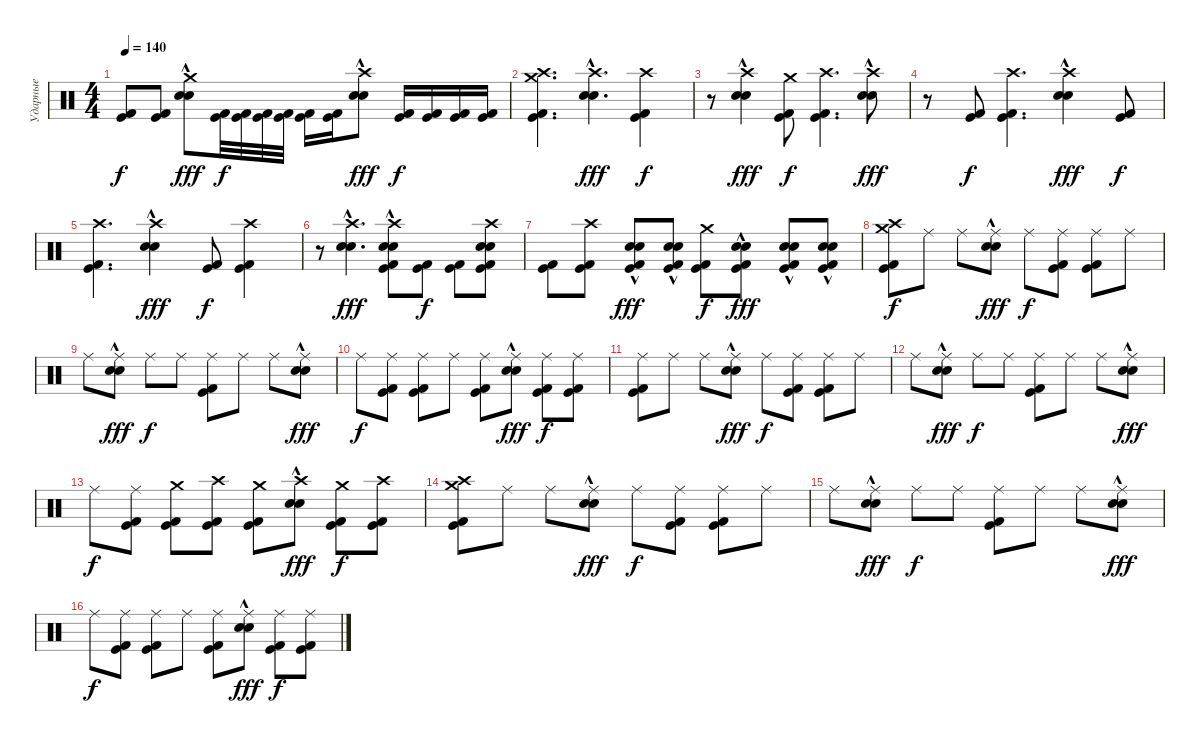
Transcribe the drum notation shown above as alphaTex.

\track ("Ударные" "Ударные") {instrument percussion}
\staff {score}
\articulation defaults
\ts (4 4)
\tempo 140
\clef neutral
\ks c
("Kick (hit)" "Kick (hit) 2").8{dy f} ("Kick (hit)" "Kick (hit) 2").8 ("Crash medium (hit)" "Snare (hit) 2"{hac} "Electric Snare (hit)"{hac}).8{dy fff} ("Kick (hit)" "Kick (hit) 2").32{dy f} ("Kick (hit)" "Kick (hit) 2").32 ("Kick (hit)" "Kick (hit) 2").32 ("Kick (hit)" "Kick (hit) 2").32 ("Kick (hit)" "Kick (hit) 2").16 ("Kick (hit)" "Kick (hit) 2").16 ("Crash high (hit)" "Snare (hit) 2"{hac} "Electric Snare (hit)"{hac}).8{dy fff} ("Kick (hit)" "Kick (hit) 2").16{dy f} ("Kick (hit)" "Kick (hit) 2").16 ("Kick (hit)" "Kick (hit) 2").16 ("Kick (hit)" "Kick (hit) 2").16 |
("Crash high (hit)" "Kick (hit)" "Kick (hit) 2" "Crash medium (hit)").4{d} ("Crash high (hit)" "Snare (hit) 2"{hac} "Electric Snare (hit)"{hac}).4{d dy fff} ("Crash high (hit)" "Kick (hit)" "Kick (hit) 2").4{dy f} |
r.8 ("Crash high (hit)" "Snare (hit) 2"{hac} "Electric Snare (hit)"{hac}).4{dy fff} ("Crash medium (hit)" "Kick (hit)" "Kick (hit) 2").8{dy f} ("Crash high (hit)" "Kick (hit)" "Kick (hit) 2").4{d} ("Crash high (hit)" "Snare (hit) 2"{hac} "Electric Snare (hit)"{hac}).8{dy fff} |
r.8 ("Kick (hit)" "Kick (hit) 2").8{dy f} ("Crash high (hit)" "Kick (hit)" "Kick (hit) 2").4{d} ("Crash high (hit)" "Snare (hit) 2"{hac} "Electric Snare (hit)"{hac}).4{dy fff} ("Kick (hit)" "Kick (hit) 2").8{dy f} |
("Crash high (hit)" "Kick (hit)" "Kick (hit) 2").4{d} ("Crash high (hit)" "Snare (hit) 2"{hac} "Electric Snare (hit)"{hac}).4{dy fff} ("Kick (hit)" "Kick (hit) 2").8{dy f} ("Crash high (hit)" "Kick (hit)" "Kick (hit) 2").4 |
r.8 ("Crash high (hit)" "Snare (hit) 2"{hac} "Electric Snare (hit)"{hac}).4{d dy fff} ("Crash high (hit)" "Kick (hit)" "Kick (hit) 2" "Snare (hit) 2"{hac} "Electric Snare (hit)"{hac}).8 ("Kick (hit)" "Kick (hit) 2").8{dy f} ("Kick (hit)" "Kick (hit) 2").8 ("Crash high (hit)" "Kick (hit)" "Kick (hit) 2" "Snare (hit) 2" "Electric Snare (hit)").8 |
("Kick (hit)" "Kick (hit) 2").8 ("Crash high (hit)" "Kick (hit)" "Kick (hit) 2").8 ("Kick (hit)" "Kick (hit) 2" "Snare (hit) 2"{hac} "Electric Snare (hit)"{hac}).8{dy fff} ("Kick (hit)" "Kick (hit) 2" "Snare (hit) 2"{hac} "Electric Snare (hit)"{hac}).8 ("Crash medium (hit)" "Kick (hit)" "Kick (hit) 2").8{dy f} ("Kick (hit)" "Kick (hit) 2" "Snare (hit) 2"{hac} "Electric Snare (hit)"{hac}).8{dy fff} ("Kick (hit)" "Kick (hit) 2" "Snare (hit) 2"{hac} "Electric Snare (hit)"{hac}).8 ("Kick (hit)" "Kick (hit) 2" "Snare (hit) 2"{hac} "Electric Snare (hit)"{hac}).8 |
("Crash high (hit)" "Kick (hit)" "Kick (hit) 2" "Crash medium (hit)").8{dy f} "Ride (middle)".8 "Ride (middle)".8 ("Ride (middle)" "Snare (hit) 2"{hac} "Electric Snare (hit)"{hac}).8{dy fff} "Ride (middle)".8{dy f} ("Ride (middle)" "Kick (hit)" "Kick (hit) 2").8 ("Ride (middle)" "Kick (hit)" "Kick (hit) 2").8 "Ride (middle)".8 |
"Ride (middle)".8 ("Ride (middle)" "Snare (hit) 2"{hac} "Electric Snare (hit)"{hac}).8{dy fff} "Ride (middle)".8{dy f} "Ride (middle)".8 ("Ride (middle)" "Kick (hit)" "Kick (hit) 2").8 "Ride (middle)".8 "Ride (middle)".8 ("Ride (middle)" "Snare (hit) 2"{hac} "Electric Snare (hit)"{hac}).8{dy fff} |
"Ride (middle)".8{dy f} ("Ride (middle)" "Kick (hit)" "Kick (hit) 2").8 ("Ride (middle)" "Kick (hit)" "Kick (hit) 2").8 "Ride (middle)".8 ("Ride (middle)" "Kick (hit)" "Kick (hit) 2").8 ("Ride (middle)" "Snare (hit) 2"{hac} "Electric Snare (hit)"{hac}).8{dy fff} ("Ride (middle)" "Kick (hit)" "Kick (hit) 2").8{dy f} ("Ride (middle)" "Kick (hit)" "Kick (hit) 2").8 |
("Ride (middle)" "Kick (hit)" "Kick (hit) 2").8 "Ride (middle)".8 "Ride (middle)".8 ("Ride (middle)" "Snare (hit) 2"{hac} "Electric Snare (hit)"{hac}).8{dy fff} "Ride (middle)".8{dy f} ("Ride (middle)" "Kick (hit)" "Kick (hit) 2").8 ("Ride (middle)" "Kick (hit)" "Kick (hit) 2").8 "Ride (middle)".8 |
"Ride (middle)".8 ("Ride (middle)" "Snare (hit) 2"{hac} "Electric Snare (hit)"{hac}).8{dy fff} "Ride (middle)".8{dy f} "Ride (middle)".8 ("Ride (middle)" "Kick (hit)" "Kick (hit) 2").8 "Ride (middle)".8 "Ride (middle)".8 ("Ride (middle)" "Snare (hit) 2"{hac} "Electric Snare (hit)"{hac}).8{dy fff} |
"Ride (middle)".8{dy f} ("Ride (middle)" "Kick (hit)" "Kick (hit) 2").8 ("Crash medium (hit)" "Kick (hit)" "Kick (hit) 2").8 ("Crash high (hit)" "Kick (hit)" "Kick (hit) 2").8 ("Crash medium (hit)" "Kick (hit)" "Kick (hit) 2").8 ("Crash high (hit)" "Snare (hit) 2"{hac} "Electric Snare (hit)"{hac}).8{dy fff} ("Crash medium (hit)" "Kick (hit)" "Kick (hit) 2").8{dy f} ("Crash high (hit)" "Kick (hit)" "Kick (hit) 2").8 |
("Crash high (hit)" "Kick (hit)" "Kick (hit) 2" "Crash medium (hit)").8 "Ride (middle)".8 "Ride (middle)".8 ("Ride (middle)" "Snare (hit) 2"{hac} "Electric Snare (hit)"{hac}).8{dy fff} "Ride (middle)".8{dy f} ("Ride (middle)" "Kick (hit)" "Kick (hit) 2").8 ("Ride (middle)" "Kick (hit)" "Kick (hit) 2").8 "Ride (middle)".8 |
"Ride (middle)".8 ("Ride (middle)" "Snare (hit) 2"{hac} "Electric Snare (hit)"{hac}).8{dy fff} "Ride (middle)".8{dy f} "Ride (middle)".8 ("Ride (middle)" "Kick (hit)" "Kick (hit) 2").8 "Ride (middle)".8 "Ride (middle)".8 ("Ride (middle)" "Snare (hit) 2"{hac} "Electric Snare (hit)"{hac}).8{dy fff} |
"Ride (middle)".8{dy f} ("Ride (middle)" "Kick (hit)" "Kick (hit) 2").8 ("Ride (middle)" "Kick (hit)" "Kick (hit) 2").8 "Ride (middle)".8 ("Ride (middle)" "Kick (hit)" "Kick (hit) 2").8 ("Ride (middle)" "Snare (hit) 2"{hac} "Electric Snare (hit)"{hac}).8{dy fff} ("Ride (middle)" "Kick (hit)" "Kick (hit) 2").8{dy f} ("Ride (middle)" "Kick (hit)" "Kick (hit) 2").8
